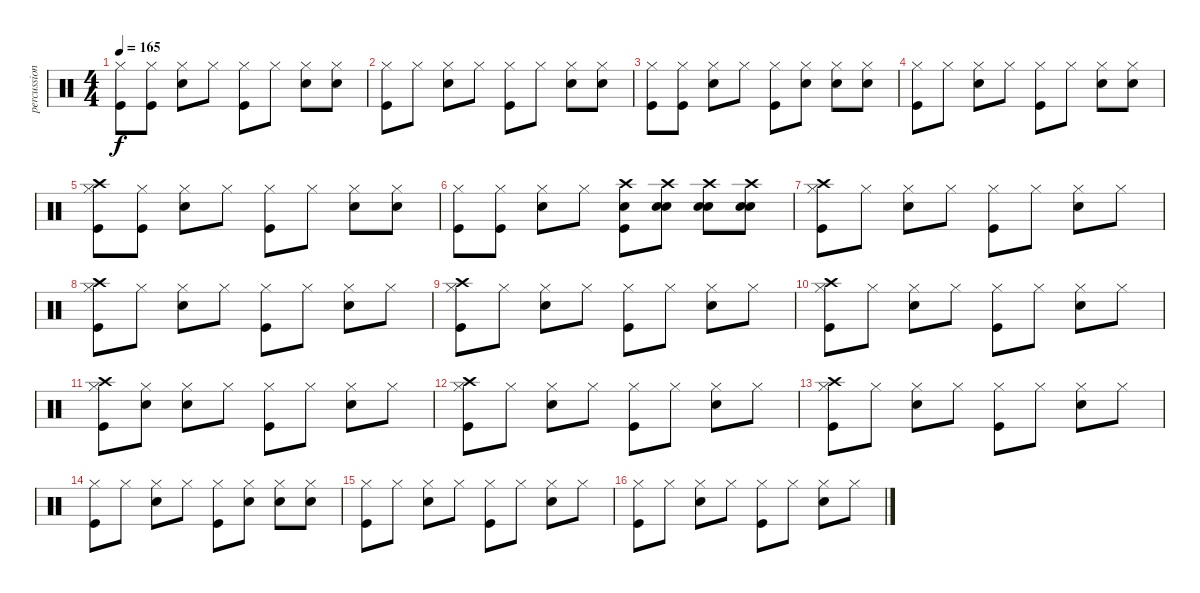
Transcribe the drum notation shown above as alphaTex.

\track ("percussion" "percussion") {instrument percussion}
\staff {score}
\articulation defaults
\ts (4 4)
\tempo 165
\clef neutral
\ks c
("Kick (hit)" "Hi-Hat (closed)").8{dy f} ("Kick (hit)" "Hi-Hat (closed)").8 ("Electric Snare (hit)" "Hi-Hat (closed)").8 "Hi-Hat (closed)".8 ("Kick (hit)" "Hi-Hat (closed)").8 "Hi-Hat (closed)".8 ("Electric Snare (hit)" "Hi-Hat (closed)").8 ("Electric Snare (hit)" "Hi-Hat (closed)").8 |
("Kick (hit)" "Hi-Hat (closed)").8 "Hi-Hat (closed)".8 ("Electric Snare (hit)" "Hi-Hat (closed)").8 "Hi-Hat (closed)".8 ("Kick (hit)" "Hi-Hat (closed)").8 "Hi-Hat (closed)".8 ("Electric Snare (hit)" "Hi-Hat (closed)").8 ("Electric Snare (hit)" "Hi-Hat (closed)").8 |
("Kick (hit)" "Hi-Hat (closed)").8 ("Kick (hit)" "Hi-Hat (closed)").8 ("Electric Snare (hit)" "Hi-Hat (closed)").8 "Hi-Hat (closed)".8 ("Kick (hit)" "Hi-Hat (closed)").8 ("Snare (hit)" "Hi-Hat (closed)").8 ("Electric Snare (hit)" "Hi-Hat (closed)").8 ("Electric Snare (hit)" "Hi-Hat (closed)").8 |
("Kick (hit)" "Hi-Hat (closed)").8 "Hi-Hat (closed)".8 ("Electric Snare (hit)" "Hi-Hat (closed)").8 "Hi-Hat (closed)".8 ("Kick (hit)" "Hi-Hat (closed)").8 "Hi-Hat (closed)".8 ("Electric Snare (hit)" "Hi-Hat (closed)").8 ("Electric Snare (hit)" "Hi-Hat (closed)").8 |
("Crash high (hit)" "Kick (hit)" "Hi-Hat (closed)").8 ("Kick (hit)" "Hi-Hat (closed)").8 ("Electric Snare (hit)" "Hi-Hat (closed)").8 "Hi-Hat (closed)".8 ("Kick (hit)" "Hi-Hat (closed)").8 "Hi-Hat (closed)".8 ("Electric Snare (hit)" "Hi-Hat (closed)").8 ("Electric Snare (hit)" "Hi-Hat (closed)").8 |
("Kick (hit)" "Hi-Hat (closed)").8 ("Kick (hit)" "Hi-Hat (closed)").8 ("Electric Snare (hit)" "Hi-Hat (closed)").8 "Hi-Hat (closed)".8 ("Crash high (hit)" "Kick (hit)" "Electric Snare (hit)").8 ("Crash high (hit)" "Electric Snare (hit)" "Electric Snare (hit)").8 ("Crash high (hit)" "Electric Snare (hit)" "Snare (hit) 2").8 ("Crash high (hit)" "Electric Snare (hit)" "Snare (hit) 2").8 |
("Crash high (hit)" "Kick (hit)" "Hi-Hat (closed)").8 "Hi-Hat (closed)".8 ("Electric Snare (hit)" "Hi-Hat (closed)").8 "Hi-Hat (closed)".8 ("Kick (hit)" "Hi-Hat (closed)").8 "Hi-Hat (closed)".8 ("Electric Snare (hit)" "Hi-Hat (closed)").8 "Hi-Hat (closed)".8 |
("Crash high (hit)" "Kick (hit)" "Hi-Hat (closed)").8 "Hi-Hat (closed)".8 ("Electric Snare (hit)" "Hi-Hat (closed)").8 "Hi-Hat (closed)".8 ("Kick (hit)" "Hi-Hat (closed)").8 "Hi-Hat (closed)".8 ("Electric Snare (hit)" "Hi-Hat (closed)").8 "Hi-Hat (closed)".8 |
("Crash high (hit)" "Kick (hit)" "Hi-Hat (closed)").8 "Hi-Hat (closed)".8 ("Electric Snare (hit)" "Hi-Hat (closed)").8 "Hi-Hat (closed)".8 ("Kick (hit)" "Hi-Hat (closed)").8 "Hi-Hat (closed)".8 ("Electric Snare (hit)" "Hi-Hat (closed)").8 "Hi-Hat (closed)".8 |
("Crash high (hit)" "Kick (hit)" "Hi-Hat (closed)").8 "Hi-Hat (closed)".8 ("Electric Snare (hit)" "Hi-Hat (closed)").8 "Hi-Hat (closed)".8 ("Kick (hit)" "Hi-Hat (closed)").8 "Hi-Hat (closed)".8 ("Electric Snare (hit)" "Hi-Hat (closed)").8 "Hi-Hat (closed)".8 |
("Crash high (hit)" "Kick (hit)" "Hi-Hat (closed)").8 ("Snare (hit)" "Hi-Hat (closed)").8 ("Electric Snare (hit)" "Hi-Hat (closed)").8 "Hi-Hat (closed)".8 ("Kick (hit)" "Hi-Hat (closed)").8 "Hi-Hat (closed)".8 ("Electric Snare (hit)" "Hi-Hat (closed)").8 "Hi-Hat (closed)".8 |
("Crash high (hit)" "Kick (hit)" "Hi-Hat (closed)").8 "Hi-Hat (closed)".8 ("Electric Snare (hit)" "Hi-Hat (closed)").8 "Hi-Hat (closed)".8 ("Kick (hit)" "Hi-Hat (closed)").8 "Hi-Hat (closed)".8 ("Electric Snare (hit)" "Hi-Hat (closed)").8 "Hi-Hat (closed)".8 |
("Crash high (hit)" "Kick (hit)" "Hi-Hat (closed)").8 "Hi-Hat (closed)".8 ("Electric Snare (hit)" "Hi-Hat (closed)").8 "Hi-Hat (closed)".8 ("Kick (hit)" "Hi-Hat (closed)").8 "Hi-Hat (closed)".8 ("Electric Snare (hit)" "Hi-Hat (closed)").8 "Hi-Hat (closed)".8 |
("Kick (hit)" "Hi-Hat (closed)").8 "Hi-Hat (closed)".8 ("Electric Snare (hit)" "Hi-Hat (closed)").8 "Hi-Hat (closed)".8 ("Kick (hit)" "Hi-Hat (closed)").8 ("Snare (hit)" "Hi-Hat (closed)").8 ("Electric Snare (hit)" "Hi-Hat (closed)").8 ("Snare (hit)" "Hi-Hat (closed)").8 |
("Kick (hit)" "Hi-Hat (closed)").8 "Hi-Hat (closed)".8 ("Electric Snare (hit)" "Hi-Hat (closed)").8 "Hi-Hat (closed)".8 ("Kick (hit)" "Hi-Hat (closed)").8 "Hi-Hat (closed)".8 ("Electric Snare (hit)" "Hi-Hat (closed)").8 "Hi-Hat (closed)".8 |
("Kick (hit)" "Hi-Hat (closed)").8 "Hi-Hat (closed)".8 ("Electric Snare (hit)" "Hi-Hat (closed)").8 "Hi-Hat (closed)".8 ("Kick (hit)" "Hi-Hat (closed)").8 "Hi-Hat (closed)".8 ("Electric Snare (hit)" "Hi-Hat (closed)").8 "Hi-Hat (closed)".8
